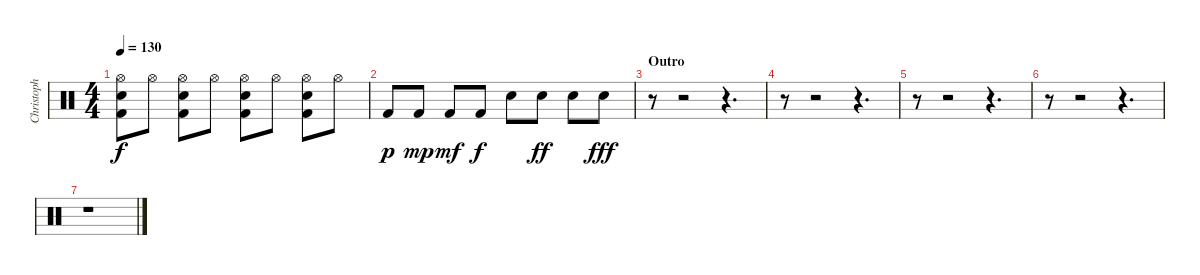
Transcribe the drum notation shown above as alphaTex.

\track ("Christoph Schneider" "Christoph ") {instrument percussion}
\staff {score}
\articulation defaults
\ts (4 4)
\tempo 130
\clef neutral
\ks c
("Hi-Hat (open)" "Snare (hit) 2" "Kick (hit) 2").8{dy f} "Hi-Hat (open)".8 ("Hi-Hat (open)" "Snare (hit) 2" "Kick (hit) 2").8 "Hi-Hat (open)".8 ("Hi-Hat (open)" "Snare (hit) 2" "Kick (hit) 2").8 "Hi-Hat (open)".8 ("Hi-Hat (open)" "Snare (hit) 2" "Kick (hit) 2").8 "Hi-Hat (open)".8 |
"Kick (hit) 2".8{dy p} "Kick (hit) 2".8{dy mp} "Kick (hit) 2".8{dy mf} "Kick (hit) 2".8{dy f} "Snare (hit) 2".8 "Snare (hit) 2".8{dy ff} "Snare (hit) 2".8 "Snare (hit) 2".8{dy fff} |
\section ("" "Outro")
r.8 r.2 r.4{d} |
r.8 r.2 r.4{d} |
r.8 r.2 r.4{d} |
r.8 r.2 r.4{d} |
r.1
